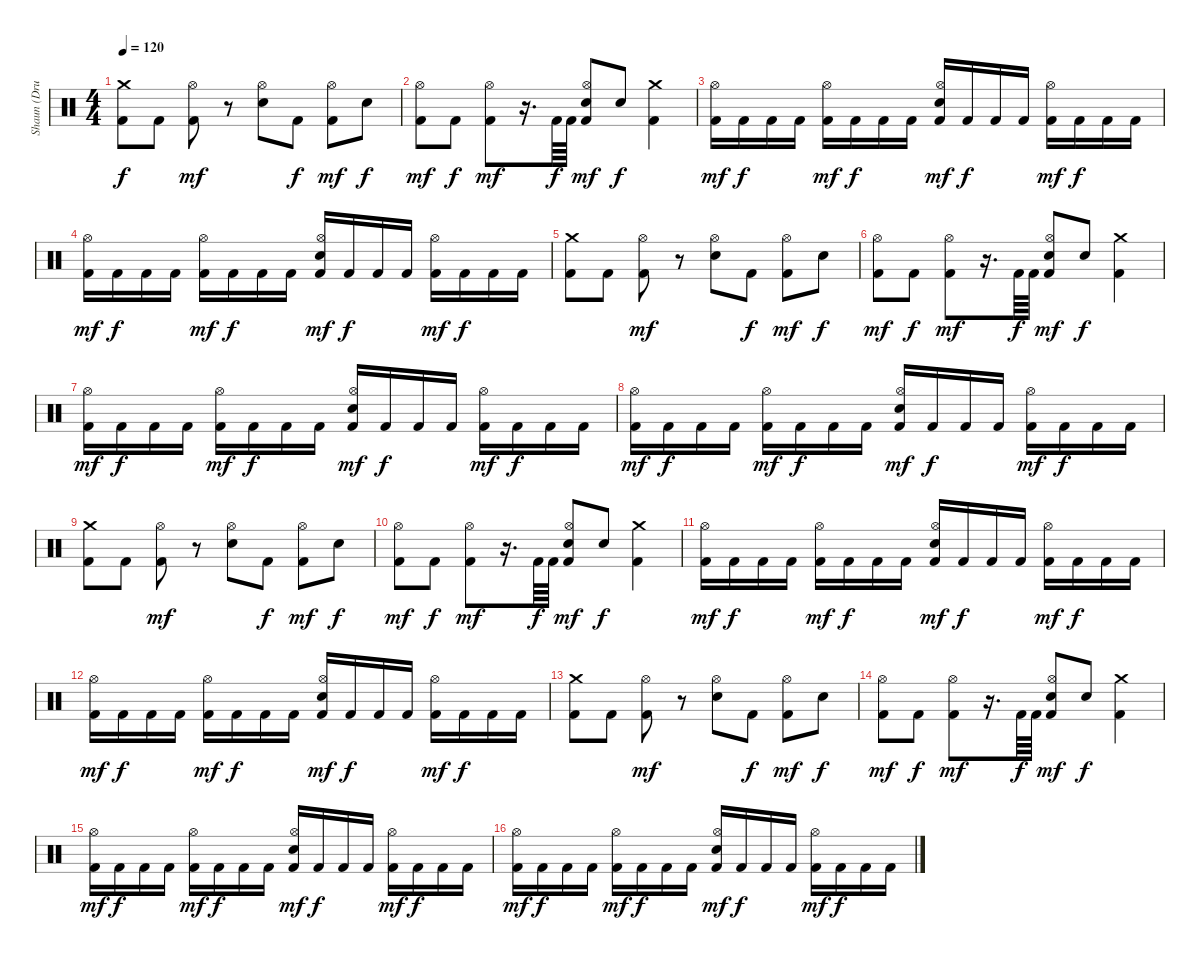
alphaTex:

\track ("Shaun (Drums Of DOOM)" "Shaun (Dru") {instrument percussion}
\staff {score}
\articulation defaults
\ts (4 4)
\tempo 120
\clef neutral
\ks c
("Kick (hit) 2" "Crash medium (hit)").8{dy f} "Kick (hit) 2".8 ("Kick (hit) 2" "Hi-Hat (open)").8{dy mf} r.8 ("Electric Snare (hit)" "Hi-Hat (open)").8 "Kick (hit) 2".8{dy f} ("Kick (hit) 2" "Hi-Hat (open)").8{dy mf} "Electric Snare (hit)".8{dy f} |
("Kick (hit) 2" "Hi-Hat (open)").8{dy mf} "Kick (hit) 2".8{dy f} ("Kick (hit) 2" "Hi-Hat (open)").8{dy mf} r.16{d} "Kick (hit) 2".64{dy f} "Kick (hit) 2".64 ("Kick (hit) 2" "Electric Snare (hit)" "Hi-Hat (open)").8{dy mf} "Electric Snare (hit)".8{dy f} ("Kick (hit) 2" "Crash medium (hit)").4 |
("Kick (hit) 2" "Hi-Hat (open)").16{dy mf} "Kick (hit) 2".16{dy f} "Kick (hit) 2".16 "Kick (hit) 2".16 ("Kick (hit) 2" "Hi-Hat (open)").16{dy mf} "Kick (hit) 2".16{dy f} "Kick (hit) 2".16 "Kick (hit) 2".16 ("Kick (hit) 2" "Electric Snare (hit)" "Hi-Hat (open)").16{dy mf} "Kick (hit) 2".16{dy f} "Kick (hit) 2".16 "Kick (hit) 2".16 ("Kick (hit) 2" "Hi-Hat (open)").16{dy mf} "Kick (hit) 2".16{dy f} "Kick (hit) 2".16 "Kick (hit) 2".16 |
("Kick (hit) 2" "Hi-Hat (open)").16{dy mf} "Kick (hit) 2".16{dy f} "Kick (hit) 2".16 "Kick (hit) 2".16 ("Kick (hit) 2" "Hi-Hat (open)").16{dy mf} "Kick (hit) 2".16{dy f} "Kick (hit) 2".16 "Kick (hit) 2".16 ("Kick (hit) 2" "Electric Snare (hit)" "Hi-Hat (open)").16{dy mf} "Kick (hit) 2".16{dy f} "Kick (hit) 2".16 "Kick (hit) 2".16 ("Kick (hit) 2" "Hi-Hat (open)").16{dy mf} "Kick (hit) 2".16{dy f} "Kick (hit) 2".16 "Kick (hit) 2".16 |
("Kick (hit) 2" "Crash medium (hit)").8 "Kick (hit) 2".8 ("Kick (hit) 2" "Hi-Hat (open)").8{dy mf} r.8 ("Electric Snare (hit)" "Hi-Hat (open)").8 "Kick (hit) 2".8{dy f} ("Kick (hit) 2" "Hi-Hat (open)").8{dy mf} "Electric Snare (hit)".8{dy f} |
("Kick (hit) 2" "Hi-Hat (open)").8{dy mf} "Kick (hit) 2".8{dy f} ("Kick (hit) 2" "Hi-Hat (open)").8{dy mf} r.16{d} "Kick (hit) 2".64{dy f} "Kick (hit) 2".64 ("Kick (hit) 2" "Electric Snare (hit)" "Hi-Hat (open)").8{dy mf} "Electric Snare (hit)".8{dy f} ("Kick (hit) 2" "Crash medium (hit)").4 |
("Kick (hit) 2" "Hi-Hat (open)").16{dy mf} "Kick (hit) 2".16{dy f} "Kick (hit) 2".16 "Kick (hit) 2".16 ("Kick (hit) 2" "Hi-Hat (open)").16{dy mf} "Kick (hit) 2".16{dy f} "Kick (hit) 2".16 "Kick (hit) 2".16 ("Kick (hit) 2" "Electric Snare (hit)" "Hi-Hat (open)").16{dy mf} "Kick (hit) 2".16{dy f} "Kick (hit) 2".16 "Kick (hit) 2".16 ("Kick (hit) 2" "Hi-Hat (open)").16{dy mf} "Kick (hit) 2".16{dy f} "Kick (hit) 2".16 "Kick (hit) 2".16 |
("Kick (hit) 2" "Hi-Hat (open)").16{dy mf} "Kick (hit) 2".16{dy f} "Kick (hit) 2".16 "Kick (hit) 2".16 ("Kick (hit) 2" "Hi-Hat (open)").16{dy mf} "Kick (hit) 2".16{dy f} "Kick (hit) 2".16 "Kick (hit) 2".16 ("Kick (hit) 2" "Electric Snare (hit)" "Hi-Hat (open)").16{dy mf} "Kick (hit) 2".16{dy f} "Kick (hit) 2".16 "Kick (hit) 2".16 ("Kick (hit) 2" "Hi-Hat (open)").16{dy mf} "Kick (hit) 2".16{dy f} "Kick (hit) 2".16 "Kick (hit) 2".16 |
("Kick (hit) 2" "Crash medium (hit)").8 "Kick (hit) 2".8 ("Kick (hit) 2" "Hi-Hat (open)").8{dy mf} r.8 ("Electric Snare (hit)" "Hi-Hat (open)").8 "Kick (hit) 2".8{dy f} ("Kick (hit) 2" "Hi-Hat (open)").8{dy mf} "Electric Snare (hit)".8{dy f} |
("Kick (hit) 2" "Hi-Hat (open)").8{dy mf} "Kick (hit) 2".8{dy f} ("Kick (hit) 2" "Hi-Hat (open)").8{dy mf} r.16{d} "Kick (hit) 2".64{dy f} "Kick (hit) 2".64 ("Kick (hit) 2" "Electric Snare (hit)" "Hi-Hat (open)").8{dy mf} "Electric Snare (hit)".8{dy f} ("Kick (hit) 2" "Crash medium (hit)").4 |
("Kick (hit) 2" "Hi-Hat (open)").16{dy mf} "Kick (hit) 2".16{dy f} "Kick (hit) 2".16 "Kick (hit) 2".16 ("Kick (hit) 2" "Hi-Hat (open)").16{dy mf} "Kick (hit) 2".16{dy f} "Kick (hit) 2".16 "Kick (hit) 2".16 ("Kick (hit) 2" "Electric Snare (hit)" "Hi-Hat (open)").16{dy mf} "Kick (hit) 2".16{dy f} "Kick (hit) 2".16 "Kick (hit) 2".16 ("Kick (hit) 2" "Hi-Hat (open)").16{dy mf} "Kick (hit) 2".16{dy f} "Kick (hit) 2".16 "Kick (hit) 2".16 |
("Kick (hit) 2" "Hi-Hat (open)").16{dy mf} "Kick (hit) 2".16{dy f} "Kick (hit) 2".16 "Kick (hit) 2".16 ("Kick (hit) 2" "Hi-Hat (open)").16{dy mf} "Kick (hit) 2".16{dy f} "Kick (hit) 2".16 "Kick (hit) 2".16 ("Kick (hit) 2" "Electric Snare (hit)" "Hi-Hat (open)").16{dy mf} "Kick (hit) 2".16{dy f} "Kick (hit) 2".16 "Kick (hit) 2".16 ("Kick (hit) 2" "Hi-Hat (open)").16{dy mf} "Kick (hit) 2".16{dy f} "Kick (hit) 2".16 "Kick (hit) 2".16 |
("Kick (hit) 2" "Crash medium (hit)").8 "Kick (hit) 2".8 ("Kick (hit) 2" "Hi-Hat (open)").8{dy mf} r.8 ("Electric Snare (hit)" "Hi-Hat (open)").8 "Kick (hit) 2".8{dy f} ("Kick (hit) 2" "Hi-Hat (open)").8{dy mf} "Electric Snare (hit)".8{dy f} |
("Kick (hit) 2" "Hi-Hat (open)").8{dy mf} "Kick (hit) 2".8{dy f} ("Kick (hit) 2" "Hi-Hat (open)").8{dy mf} r.16{d} "Kick (hit) 2".64{dy f} "Kick (hit) 2".64 ("Kick (hit) 2" "Electric Snare (hit)" "Hi-Hat (open)").8{dy mf} "Electric Snare (hit)".8{dy f} ("Kick (hit) 2" "Crash medium (hit)").4 |
("Kick (hit) 2" "Hi-Hat (open)").16{dy mf} "Kick (hit) 2".16{dy f} "Kick (hit) 2".16 "Kick (hit) 2".16 ("Kick (hit) 2" "Hi-Hat (open)").16{dy mf} "Kick (hit) 2".16{dy f} "Kick (hit) 2".16 "Kick (hit) 2".16 ("Kick (hit) 2" "Electric Snare (hit)" "Hi-Hat (open)").16{dy mf} "Kick (hit) 2".16{dy f} "Kick (hit) 2".16 "Kick (hit) 2".16 ("Kick (hit) 2" "Hi-Hat (open)").16{dy mf} "Kick (hit) 2".16{dy f} "Kick (hit) 2".16 "Kick (hit) 2".16 |
("Kick (hit) 2" "Hi-Hat (open)").16{dy mf} "Kick (hit) 2".16{dy f} "Kick (hit) 2".16 "Kick (hit) 2".16 ("Kick (hit) 2" "Hi-Hat (open)").16{dy mf} "Kick (hit) 2".16{dy f} "Kick (hit) 2".16 "Kick (hit) 2".16 ("Kick (hit) 2" "Electric Snare (hit)" "Hi-Hat (open)").16{dy mf} "Kick (hit) 2".16{dy f} "Kick (hit) 2".16 "Kick (hit) 2".16 ("Kick (hit) 2" "Hi-Hat (open)").16{dy mf} "Kick (hit) 2".16{dy f} "Kick (hit) 2".16 "Kick (hit) 2".16
